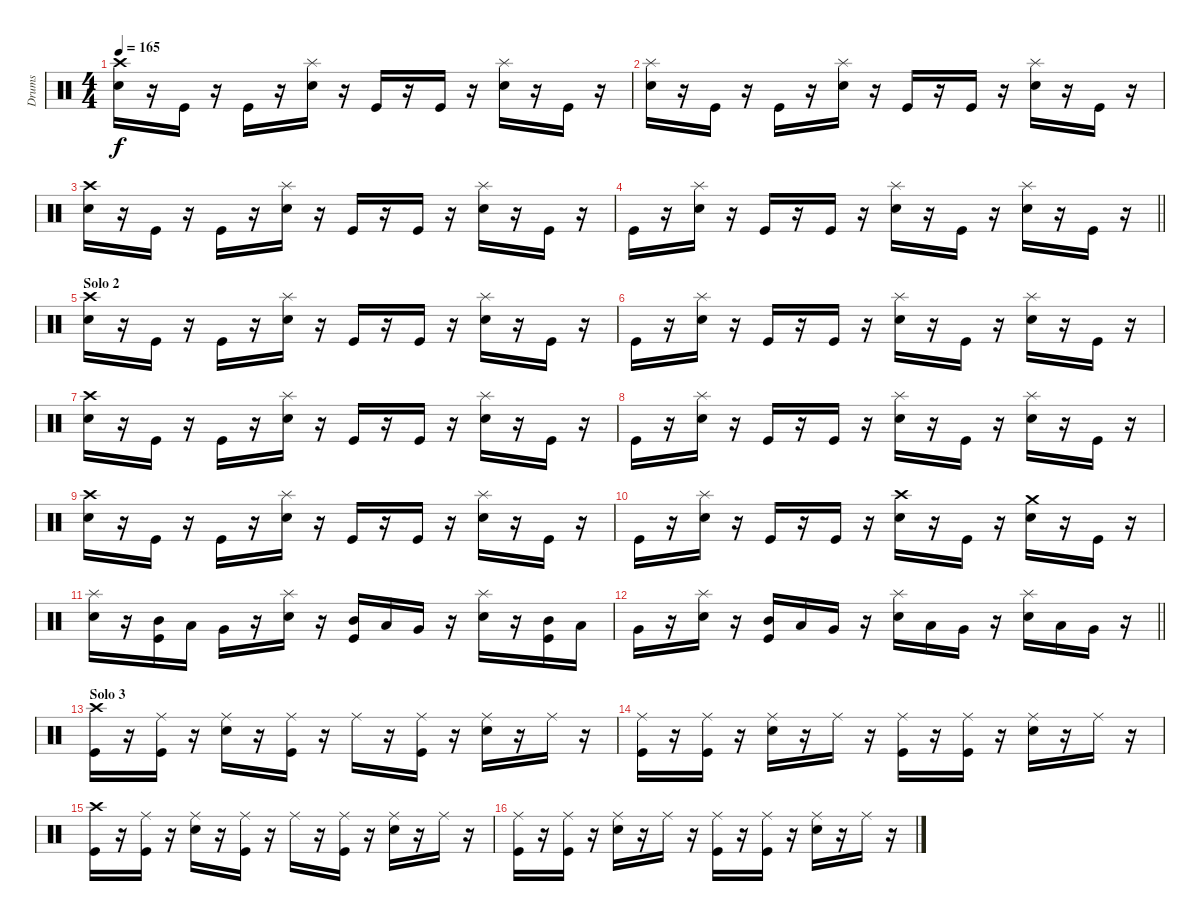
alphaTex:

\track ("Drums" "Drums") {instrument percussion}
\staff {score}
\articulation defaults
\ts (4 4)
\tempo 165
\clef neutral
\ks c
("Crash high (hit)" "Electric Snare (hit)").16{dy f} r.16 "Kick (hit)".16 r.16 "Kick (hit)".16 r.16 ("Splash (hit)" "Electric Snare (hit)").16 r.16 "Kick (hit)".16 r.16 "Kick (hit)".16 r.16 ("Splash (hit)" "Electric Snare (hit)").16 r.16 "Kick (hit)".16 r.16 |
("Splash (hit)" "Electric Snare (hit)").16 r.16 "Kick (hit)".16 r.16 "Kick (hit)".16 r.16 ("Splash (hit)" "Electric Snare (hit)").16 r.16 "Kick (hit)".16 r.16 "Kick (hit)".16 r.16 ("Splash (hit)" "Electric Snare (hit)").16 r.16 "Kick (hit)".16 r.16 |
("Crash high (hit)" "Electric Snare (hit)").16 r.16 "Kick (hit)".16 r.16 "Kick (hit)".16 r.16 ("Splash (hit)" "Electric Snare (hit)").16 r.16 "Kick (hit)".16 r.16 "Kick (hit)".16 r.16 ("Splash (hit)" "Electric Snare (hit)").16 r.16 "Kick (hit)".16 r.16 |
\barLineRight lightlight "Kick (hit)".16
r.16 ("Splash (hit)" "Electric Snare (hit)").16 r.16 "Kick (hit)".16 r.16 "Kick (hit)".16 r.16 ("Splash (hit)" "Electric Snare (hit)").16 r.16 "Kick (hit)".16 r.16 ("Splash (hit)" "Electric Snare (hit)").16 r.16 "Kick (hit)".16 r.16 |
\section ("" "Solo 2")
("Crash high (hit)" "Electric Snare (hit)").16 r.16 "Kick (hit)".16 r.16 "Kick (hit)".16 r.16 ("Splash (hit)" "Electric Snare (hit)").16 r.16 "Kick (hit)".16 r.16 "Kick (hit)".16 r.16 ("Splash (hit)" "Electric Snare (hit)").16 r.16 "Kick (hit)".16 r.16 |
"Kick (hit)".16 r.16 ("Splash (hit)" "Electric Snare (hit)").16 r.16 "Kick (hit)".16 r.16 "Kick (hit)".16 r.16 ("Splash (hit)" "Electric Snare (hit)").16 r.16 "Kick (hit)".16 r.16 ("Splash (hit)" "Electric Snare (hit)").16 r.16 "Kick (hit)".16 r.16 |
("Crash high (hit)" "Electric Snare (hit)").16 r.16 "Kick (hit)".16 r.16 "Kick (hit)".16 r.16 ("Splash (hit)" "Electric Snare (hit)").16 r.16 "Kick (hit)".16 r.16 "Kick (hit)".16 r.16 ("Splash (hit)" "Electric Snare (hit)").16 r.16 "Kick (hit)".16 r.16 |
"Kick (hit)".16 r.16 ("Splash (hit)" "Electric Snare (hit)").16 r.16 "Kick (hit)".16 r.16 "Kick (hit)".16 r.16 ("Splash (hit)" "Electric Snare (hit)").16 r.16 "Kick (hit)".16 r.16 ("Splash (hit)" "Electric Snare (hit)").16 r.16 "Kick (hit)".16 r.16 |
("Crash high (hit)" "Electric Snare (hit)").16 r.16 "Kick (hit)".16 r.16 "Kick (hit)".16 r.16 ("Splash (hit)" "Electric Snare (hit)").16 r.16 "Kick (hit)".16 r.16 "Kick (hit)".16 r.16 ("Splash (hit)" "Electric Snare (hit)").16 r.16 "Kick (hit)".16 r.16 |
"Kick (hit)".16 r.16 ("Splash (hit)" "Electric Snare (hit)").16 r.16 "Kick (hit)".16 r.16 "Kick (hit)".16 r.16 ("Crash high (hit)" "Electric Snare (hit)").16 r.16 "Kick (hit)".16 r.16 ("Crash medium (hit)" "Electric Snare (hit)").16 r.16 "Kick (hit)".16 r.16 |
("Splash (hit)" "Electric Snare (hit)").16 r.16 ("Mid Tom (hit)" "Kick (hit)").16 "Low Tom (hit)".16 "Very Low Tom (hit)".16 r.16 ("Splash (hit)" "Electric Snare (hit)").16 r.16 ("Mid Tom (hit)" "Kick (hit)").16 "Low Tom (hit)".16 "Very Low Tom (hit)".16 r.16 ("Splash (hit)" "Electric Snare (hit)").16 r.16 ("Mid Tom (hit)" "Kick (hit)").16 "Low Tom (hit)".16 |
\barLineRight lightlight "Very Low Tom (hit)".16
r.16 ("Splash (hit)" "Electric Snare (hit)").16 r.16 ("Mid Tom (hit)" "Kick (hit)").16 "Low Tom (hit)".16 "Very Low Tom (hit)".16 r.16 ("Splash (hit)" "Electric Snare (hit)").16 "Low Tom (hit)".16 "Very Low Tom (hit)".16 r.16 ("Splash (hit)" "Electric Snare (hit)").16 "Low Tom (hit)".16 "Very Low Tom (hit)".16 r.16 |
\section ("" "Solo 3")
("Crash high (hit)" "Kick (hit)").16 r.16 ("Ride (middle)" "Kick (hit)").16 r.16 ("Ride (middle)" "Electric Snare (hit)").16 r.16 ("Ride (middle)" "Kick (hit)").16 r.16 "Ride (middle)".16 r.16 ("Ride (middle)" "Kick (hit)").16 r.16 ("Ride (middle)" "Electric Snare (hit)").16 r.16 "Ride (middle)".16 r.16 |
("Ride (middle)" "Kick (hit)").16 r.16 ("Ride (middle)" "Kick (hit)").16 r.16 ("Ride (middle)" "Electric Snare (hit)").16 r.16 "Ride (middle)".16 r.16 ("Ride (middle)" "Kick (hit)").16 r.16 ("Ride (middle)" "Kick (hit)").16 r.16 ("Ride (middle)" "Electric Snare (hit)").16 r.16 "Ride (middle)".16 r.16 |
("Crash high (hit)" "Kick (hit)").16 r.16 ("Ride (middle)" "Kick (hit)").16 r.16 ("Ride (middle)" "Electric Snare (hit)").16 r.16 ("Ride (middle)" "Kick (hit)").16 r.16 "Ride (middle)".16 r.16 ("Ride (middle)" "Kick (hit)").16 r.16 ("Ride (middle)" "Electric Snare (hit)").16 r.16 "Ride (middle)".16 r.16 |
("Ride (middle)" "Kick (hit)").16 r.16 ("Ride (middle)" "Kick (hit)").16 r.16 ("Ride (middle)" "Electric Snare (hit)").16 r.16 "Ride (middle)".16 r.16 ("Ride (middle)" "Kick (hit)").16 r.16 ("Ride (middle)" "Kick (hit)").16 r.16 ("Ride (middle)" "Electric Snare (hit)").16 r.16 "Ride (middle)".16 r.16
